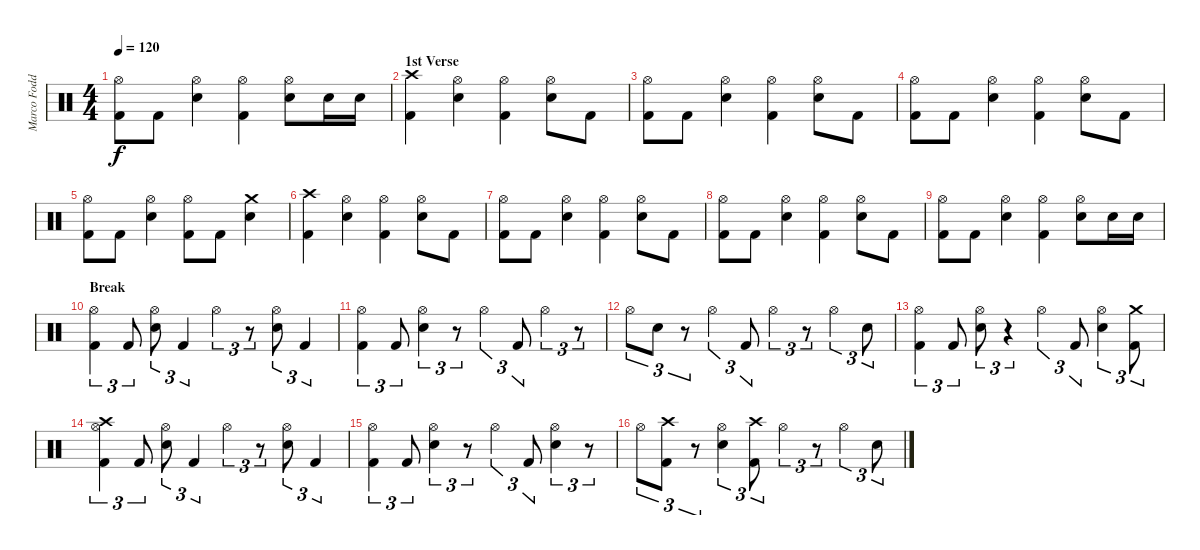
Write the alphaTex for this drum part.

\track ("Marco Foddis " "Marco Fodd") {instrument percussion}
\staff {score}
\articulation defaults
\ts (4 4)
\tempo 120
\clef neutral
\ks c
("Hi-Hat (open)" "Kick (hit) 2").8{dy f} "Kick (hit) 2".8 ("Hi-Hat (open)" "Electric Snare (hit)").4 ("Hi-Hat (open)" "Kick (hit) 2").4 ("Hi-Hat (open)" "Electric Snare (hit)").8 "Electric Snare (hit)".16 "Electric Snare (hit)".16 |
\section ("" "1st Verse")
("Crash high (hit)" "Kick (hit) 2").4 ("Hi-Hat (open)" "Electric Snare (hit)").4 ("Hi-Hat (open)" "Kick (hit) 2").4 ("Hi-Hat (open)" "Electric Snare (hit)").8 "Kick (hit) 2".8 |
("Hi-Hat (open)" "Kick (hit) 2").8 "Kick (hit) 2".8 ("Hi-Hat (open)" "Electric Snare (hit)").4 ("Hi-Hat (open)" "Kick (hit) 2").4 ("Hi-Hat (open)" "Electric Snare (hit)").8 "Kick (hit) 2".8 |
("Hi-Hat (open)" "Kick (hit) 2").8 "Kick (hit) 2".8 ("Hi-Hat (open)" "Electric Snare (hit)").4 ("Hi-Hat (open)" "Kick (hit) 2").4 ("Hi-Hat (open)" "Electric Snare (hit)").8 "Kick (hit) 2".8 |
("Hi-Hat (open)" "Kick (hit) 2").8 "Kick (hit) 2".8 ("Hi-Hat (open)" "Electric Snare (hit)").4 ("Hi-Hat (open)" "Kick (hit) 2").8 "Kick (hit) 2".8 ("Crash medium (hit)" "Electric Snare (hit)").4 |
("Crash high (hit)" "Kick (hit) 2").4 ("Hi-Hat (open)" "Electric Snare (hit)").4 ("Hi-Hat (open)" "Kick (hit) 2").4 ("Hi-Hat (open)" "Electric Snare (hit)").8 "Kick (hit) 2".8 |
("Hi-Hat (open)" "Kick (hit) 2").8 "Kick (hit) 2".8 ("Hi-Hat (open)" "Electric Snare (hit)").4 ("Hi-Hat (open)" "Kick (hit) 2").4 ("Hi-Hat (open)" "Electric Snare (hit)").8 "Kick (hit) 2".8 |
("Hi-Hat (open)" "Kick (hit) 2").8 "Kick (hit) 2".8 ("Hi-Hat (open)" "Electric Snare (hit)").4 ("Hi-Hat (open)" "Kick (hit) 2").4 ("Hi-Hat (open)" "Electric Snare (hit)").8 "Kick (hit) 2".8 |
("Hi-Hat (open)" "Kick (hit) 2").8 "Kick (hit) 2".8 ("Hi-Hat (open)" "Electric Snare (hit)").4 ("Hi-Hat (open)" "Kick (hit) 2").4 ("Hi-Hat (open)" "Electric Snare (hit)").8 "Electric Snare (hit)".16 "Electric Snare (hit)".16 |
\section ("" "Break")
("Hi-Hat (open)" "Kick (hit) 2").4{tu (3 2)} "Kick (hit) 2".8{tu (3 2)} ("Hi-Hat (open)" "Electric Snare (hit)").8{tu (3 2)} "Kick (hit) 2".4{tu (3 2)} "Hi-Hat (open)".4{tu (3 2)} r.8{tu (3 2)} ("Hi-Hat (open)" "Electric Snare (hit)").8{tu (3 2)} "Kick (hit) 2".4{tu (3 2)} |
("Hi-Hat (open)" "Kick (hit) 2").4{tu (3 2)} "Kick (hit) 2".8{tu (3 2)} ("Hi-Hat (open)" "Electric Snare (hit)").4{tu (3 2)} r.8{tu (3 2)} "Hi-Hat (open)".4{tu (3 2)} "Kick (hit) 2".8{tu (3 2)} "Hi-Hat (open)".4{tu (3 2)} r.8{tu (3 2)} |
"Hi-Hat (open)".8{tu (3 2)} "Electric Snare (hit)".8{tu (3 2)} r.8{tu (3 2)} "Hi-Hat (open)".4{tu (3 2)} "Kick (hit) 2".8{tu (3 2)} "Hi-Hat (open)".4{tu (3 2)} r.8{tu (3 2)} "Hi-Hat (open)".4{tu (3 2)} "Electric Snare (hit)".8{tu (3 2)} |
("Hi-Hat (open)" "Kick (hit) 2").4{tu (3 2)} "Kick (hit) 2".8{tu (3 2)} ("Hi-Hat (open)" "Electric Snare (hit)").8{tu (3 2)} r.4{tu (3 2)} "Hi-Hat (open)".4{tu (3 2)} "Kick (hit) 2".8{tu (3 2)} ("Hi-Hat (open)" "Electric Snare (hit)").4{tu (3 2)} ("Crash medium (hit)" "Kick (hit) 2").8{tu (3 2)} |
("Crash high (hit)" "Hi-Hat (open)" "Kick (hit) 2").4{tu (3 2)} "Kick (hit) 2".8{tu (3 2)} ("Hi-Hat (open)" "Electric Snare (hit)").8{tu (3 2)} "Kick (hit) 2".4{tu (3 2)} "Hi-Hat (open)".4{tu (3 2)} r.8{tu (3 2)} ("Hi-Hat (open)" "Electric Snare (hit)").8{tu (3 2)} "Kick (hit) 2".4{tu (3 2)} |
("Hi-Hat (open)" "Kick (hit) 2").4{tu (3 2)} "Kick (hit) 2".8{tu (3 2)} ("Hi-Hat (open)" "Electric Snare (hit)").4{tu (3 2)} r.8{tu (3 2)} "Hi-Hat (open)".4{tu (3 2)} "Kick (hit) 2".8{tu (3 2)} ("Hi-Hat (open)" "Electric Snare (hit)").4{tu (3 2)} r.8{tu (3 2)} |
"Hi-Hat (open)".8{tu (3 2)} ("Crash high (hit)" "Kick (hit) 2").8{tu (3 2)} r.8{tu (3 2)} ("Hi-Hat (open)" "Electric Snare (hit)").4{tu (3 2)} ("Crash high (hit)" "Kick (hit) 2").8{tu (3 2)} "Hi-Hat (open)".4{tu (3 2)} r.8{tu (3 2)} "Hi-Hat (open)".4{tu (3 2)} "Electric Snare (hit)".8{tu (3 2)}
